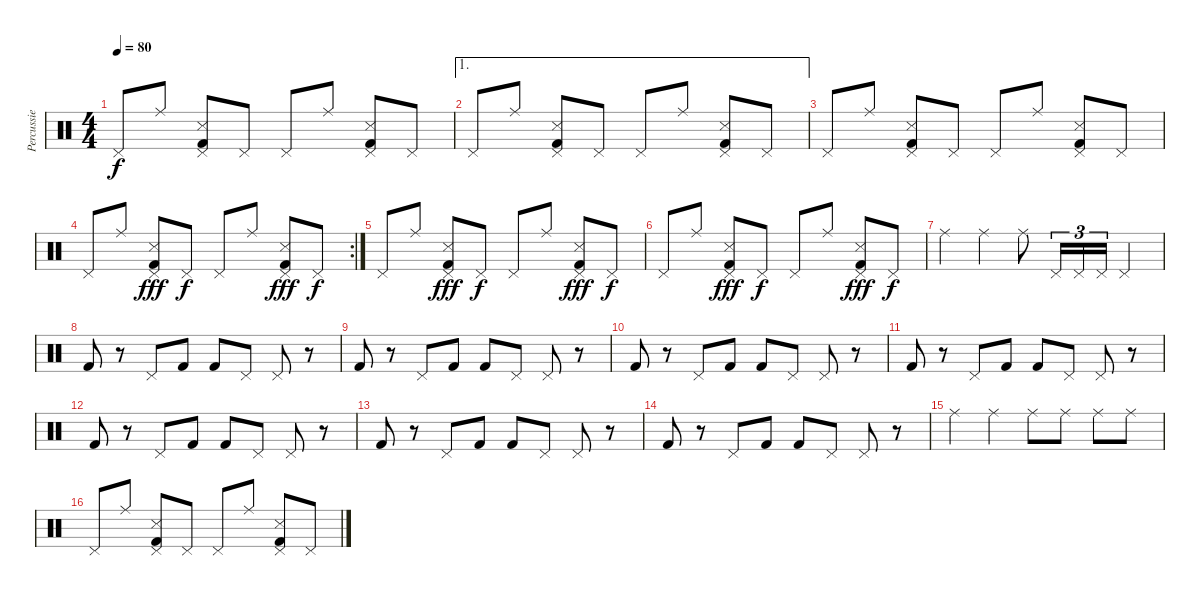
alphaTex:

\track ("Percussie" "Percussie") {instrument percussion}
\staff {score}
\articulation defaults
\ts (4 4)
\tempo 80
\clef neutral
\ks c "Pedal Hi-Hat (hit)".8{dy f} "Ride (middle)".8
("Snare (side stick) 3" "Kick (hit) 2" "Pedal Hi-Hat (hit)").8 "Pedal Hi-Hat (hit)".8 "Pedal Hi-Hat (hit)".8 "Ride (middle)".8 ("Snare (side stick) 3" "Kick (hit) 2" "Pedal Hi-Hat (hit)").8 "Pedal Hi-Hat (hit)".8 |
\ae 1 "Pedal Hi-Hat (hit)".8 "Ride (middle)".8
("Snare (side stick) 3" "Kick (hit) 2" "Pedal Hi-Hat (hit)").8 "Pedal Hi-Hat (hit)".8 "Pedal Hi-Hat (hit)".8 "Ride (middle)".8 ("Snare (side stick) 3" "Kick (hit) 2" "Pedal Hi-Hat (hit)").8 "Pedal Hi-Hat (hit)".8 |
"Pedal Hi-Hat (hit)".8 "Ride (middle)".8 ("Snare (side stick) 3" "Kick (hit) 2" "Pedal Hi-Hat (hit)").8 "Pedal Hi-Hat (hit)".8 "Pedal Hi-Hat (hit)".8 "Ride (middle)".8 ("Snare (side stick) 3" "Kick (hit) 2" "Pedal Hi-Hat (hit)").8 "Pedal Hi-Hat (hit)".8 |
\rc 2 "Pedal Hi-Hat (hit)".8 "Ride (middle)".8
("Snare (side stick) 3" "Kick (hit) 2" "Pedal Hi-Hat (hit)").8{dy fff} "Pedal Hi-Hat (hit)".8{dy f} "Pedal Hi-Hat (hit)".8 "Ride (middle)".8 ("Snare (side stick) 3" "Kick (hit) 2" "Pedal Hi-Hat (hit)").8{dy fff} "Pedal Hi-Hat (hit)".8{dy f} |
"Pedal Hi-Hat (hit)".8 "Ride (middle)".8 ("Snare (side stick) 3" "Kick (hit) 2" "Pedal Hi-Hat (hit)").8{dy fff} "Pedal Hi-Hat (hit)".8{dy f} "Pedal Hi-Hat (hit)".8 "Ride (middle)".8 ("Snare (side stick) 3" "Kick (hit) 2" "Pedal Hi-Hat (hit)").8{dy fff} "Pedal Hi-Hat (hit)".8{dy f} |
"Pedal Hi-Hat (hit)".8 "Ride (middle)".8 ("Snare (side stick) 3" "Kick (hit) 2" "Pedal Hi-Hat (hit)").8{dy fff} "Pedal Hi-Hat (hit)".8{dy f} "Pedal Hi-Hat (hit)".8 "Ride (middle)".8 ("Snare (side stick) 3" "Kick (hit) 2" "Pedal Hi-Hat (hit)").8{dy fff} "Pedal Hi-Hat (hit)".8{dy f} |
"Ride (middle)".4 "Ride (middle)".4 "Ride (middle)".8 "Pedal Hi-Hat (hit)".16{tu (3 2)} "Pedal Hi-Hat (hit)".16{tu (3 2)} "Pedal Hi-Hat (hit)".16{tu (3 2)} "Pedal Hi-Hat (hit)".4 |
"Kick (hit) 2".8 r.8 "Pedal Hi-Hat (hit)".8 "Kick (hit) 2".8 "Kick (hit) 2".8 "Pedal Hi-Hat (hit)".8 "Pedal Hi-Hat (hit)".8 r.8 |
"Kick (hit) 2".8 r.8 "Pedal Hi-Hat (hit)".8 "Kick (hit) 2".8 "Kick (hit) 2".8 "Pedal Hi-Hat (hit)".8 "Pedal Hi-Hat (hit)".8 r.8 |
"Kick (hit) 2".8 r.8 "Pedal Hi-Hat (hit)".8 "Kick (hit) 2".8 "Kick (hit) 2".8 "Pedal Hi-Hat (hit)".8 "Pedal Hi-Hat (hit)".8 r.8 |
"Kick (hit) 2".8 r.8 "Pedal Hi-Hat (hit)".8 "Kick (hit) 2".8 "Kick (hit) 2".8 "Pedal Hi-Hat (hit)".8 "Pedal Hi-Hat (hit)".8 r.8 |
"Kick (hit) 2".8 r.8 "Pedal Hi-Hat (hit)".8 "Kick (hit) 2".8 "Kick (hit) 2".8 "Pedal Hi-Hat (hit)".8 "Pedal Hi-Hat (hit)".8 r.8 |
"Kick (hit) 2".8 r.8 "Pedal Hi-Hat (hit)".8 "Kick (hit) 2".8 "Kick (hit) 2".8 "Pedal Hi-Hat (hit)".8 "Pedal Hi-Hat (hit)".8 r.8 |
"Kick (hit) 2".8 r.8 "Pedal Hi-Hat (hit)".8 "Kick (hit) 2".8 "Kick (hit) 2".8 "Pedal Hi-Hat (hit)".8 "Pedal Hi-Hat (hit)".8 r.8 |
"Ride (middle)".4 "Ride (middle)".4 "Ride (middle)".8 "Ride (middle)".8 "Ride (middle)".8 "Ride (middle)".8 |
"Pedal Hi-Hat (hit)".8 "Ride (middle)".8 ("Snare (side stick) 3" "Kick (hit) 2" "Pedal Hi-Hat (hit)").8 "Pedal Hi-Hat (hit)".8 "Pedal Hi-Hat (hit)".8 "Ride (middle)".8 ("Snare (side stick) 3" "Kick (hit) 2" "Pedal Hi-Hat (hit)").8 "Pedal Hi-Hat (hit)".8
